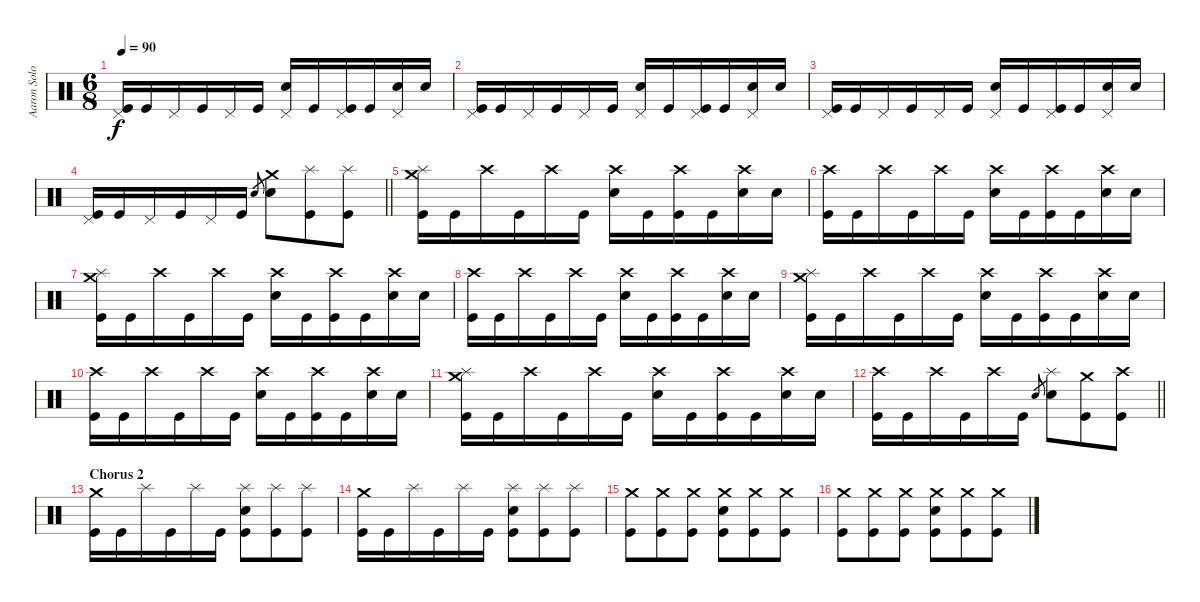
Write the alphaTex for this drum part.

\track ("Aaron Solowoniuk" "Aaron Solo") {instrument percussion}
\staff {score}
\articulation defaults
\ts (6 8)
\tempo 90
\clef neutral
\ks c
("Pedal Hi-Hat (hit)" "Kick (hit)").16{dy f} "Kick (hit)".16 "Pedal Hi-Hat (hit)".16 "Kick (hit)".16 "Pedal Hi-Hat (hit)".16 "Kick (hit)".16 ("Pedal Hi-Hat (hit)" "Electric Snare (hit)").16 "Kick (hit)".16 ("Pedal Hi-Hat (hit)" "Kick (hit)").16 "Kick (hit)".16 ("Pedal Hi-Hat (hit)" "Electric Snare (hit)").16 "Electric Snare (hit)".16 |
("Pedal Hi-Hat (hit)" "Kick (hit)").16 "Kick (hit)".16 "Pedal Hi-Hat (hit)".16 "Kick (hit)".16 "Pedal Hi-Hat (hit)".16 "Kick (hit)".16 ("Pedal Hi-Hat (hit)" "Electric Snare (hit)").16 "Kick (hit)".16 ("Pedal Hi-Hat (hit)" "Kick (hit)").16 "Kick (hit)".16 ("Pedal Hi-Hat (hit)" "Electric Snare (hit)").16 "Electric Snare (hit)".16 |
("Pedal Hi-Hat (hit)" "Kick (hit)").16 "Kick (hit)".16 "Pedal Hi-Hat (hit)".16 "Kick (hit)".16 "Pedal Hi-Hat (hit)".16 "Kick (hit)".16 ("Pedal Hi-Hat (hit)" "Electric Snare (hit)").16 "Kick (hit)".16 ("Pedal Hi-Hat (hit)" "Kick (hit)").16 "Kick (hit)".16 ("Pedal Hi-Hat (hit)" "Electric Snare (hit)").16 "Electric Snare (hit)".16 |
\barLineRight lightlight
("Pedal Hi-Hat (hit)" "Kick (hit)").16 "Kick (hit)".16 "Pedal Hi-Hat (hit)".16 "Kick (hit)".16 "Pedal Hi-Hat (hit)".16 "Kick (hit)".16 "Electric Snare (hit)".8{gr} ("Crash medium (hit)" "Electric Snare (hit)").8 ("Splash (hit)" "Kick (hit)").8 ("Splash (hit)" "Kick (hit)").8 |
\section ("" "")
("Crash medium (hit)" "Splash (hit)" "Kick (hit)").16 "Kick (hit)".16 "Crash high (hit)".16 "Kick (hit)".16 "Crash high (hit)".16 "Kick (hit)".16 ("Crash high (hit)" "Electric Snare (hit)").16 "Kick (hit)".16 ("Crash high (hit)" "Kick (hit)").16 "Kick (hit)".16 ("Crash high (hit)" "Electric Snare (hit)").16 "Electric Snare (hit)".16 |
("Crash high (hit)" "Kick (hit)").16 "Kick (hit)".16 "Crash high (hit)".16 "Kick (hit)".16 "Crash high (hit)".16 "Kick (hit)".16 ("Crash high (hit)" "Electric Snare (hit)").16 "Kick (hit)".16 ("Crash high (hit)" "Kick (hit)").16 "Kick (hit)".16 ("Crash high (hit)" "Electric Snare (hit)").16 "Electric Snare (hit)".16 |
("Crash medium (hit)" "Splash (hit)" "Kick (hit)").16 "Kick (hit)".16 "Crash high (hit)".16 "Kick (hit)".16 "Crash high (hit)".16 "Kick (hit)".16 ("Crash high (hit)" "Electric Snare (hit)").16 "Kick (hit)".16 ("Crash high (hit)" "Kick (hit)").16 "Kick (hit)".16 ("Crash high (hit)" "Electric Snare (hit)").16 "Electric Snare (hit)".16 |
("Crash high (hit)" "Kick (hit)").16 "Kick (hit)".16 "Crash high (hit)".16 "Kick (hit)".16 "Crash high (hit)".16 "Kick (hit)".16 ("Crash high (hit)" "Electric Snare (hit)").16 "Kick (hit)".16 ("Crash high (hit)" "Kick (hit)").16 "Kick (hit)".16 ("Crash high (hit)" "Electric Snare (hit)").16 "Electric Snare (hit)".16 |
("Crash medium (hit)" "Splash (hit)" "Kick (hit)").16 "Kick (hit)".16 "Crash high (hit)".16 "Kick (hit)".16 "Crash high (hit)".16 "Kick (hit)".16 ("Crash high (hit)" "Electric Snare (hit)").16 "Kick (hit)".16 ("Crash high (hit)" "Kick (hit)").16 "Kick (hit)".16 ("Crash high (hit)" "Electric Snare (hit)").16 "Electric Snare (hit)".16 |
("Crash high (hit)" "Kick (hit)").16 "Kick (hit)".16 "Crash high (hit)".16 "Kick (hit)".16 "Crash high (hit)".16 "Kick (hit)".16 ("Crash high (hit)" "Electric Snare (hit)").16 "Kick (hit)".16 ("Crash high (hit)" "Kick (hit)").16 "Kick (hit)".16 ("Crash high (hit)" "Electric Snare (hit)").16 "Electric Snare (hit)".16 |
("Crash medium (hit)" "Splash (hit)" "Kick (hit)").16 "Kick (hit)".16 "Crash high (hit)".16 "Kick (hit)".16 "Crash high (hit)".16 "Kick (hit)".16 ("Crash high (hit)" "Electric Snare (hit)").16 "Kick (hit)".16 ("Crash high (hit)" "Kick (hit)").16 "Kick (hit)".16 ("Crash high (hit)" "Electric Snare (hit)").16 "Electric Snare (hit)".16 |
\barLineRight lightlight
("Crash high (hit)" "Kick (hit)").16 "Kick (hit)".16 "Crash high (hit)".16 "Kick (hit)".16 "Crash high (hit)".16 "Kick (hit)".16 "Electric Snare (hit)".8{gr} ("Splash (hit)" "Electric Snare (hit)").8 ("Crash medium (hit)" "Kick (hit)").8 ("Crash high (hit)" "Kick (hit)").8 |
\section ("" "Chorus 2")
("Crash medium (hit)" "Kick (hit)").16 "Kick (hit)".16 "Splash (hit)".16 "Kick (hit)".16 "Splash (hit)".16 "Kick (hit)".16 ("Splash (hit)" "Electric Snare (hit)" "Kick (hit)").8 ("Splash (hit)" "Kick (hit)").8 ("Splash (hit)" "Kick (hit)").8 |
("Crash medium (hit)" "Kick (hit)").16 "Kick (hit)".16 "Splash (hit)".16 "Kick (hit)".16 "Splash (hit)".16 "Kick (hit)".16 ("Splash (hit)" "Electric Snare (hit)" "Kick (hit)").8 ("Splash (hit)" "Kick (hit)").8 ("Splash (hit)" "Kick (hit)").8 |
("Crash medium (hit)" "Kick (hit)").8 ("Crash medium (hit)" "Kick (hit)").8 ("Crash medium (hit)" "Kick (hit)").8 ("Crash medium (hit)" "Electric Snare (hit)" "Kick (hit)").8 ("Crash medium (hit)" "Kick (hit)").8 ("Crash medium (hit)" "Kick (hit)").8 |
("Crash medium (hit)" "Kick (hit)").8 ("Crash medium (hit)" "Kick (hit)").8 ("Crash medium (hit)" "Kick (hit)").8 ("Crash medium (hit)" "Electric Snare (hit)" "Kick (hit)").8 ("Crash medium (hit)" "Kick (hit)").8 ("Crash medium (hit)" "Kick (hit)").8
